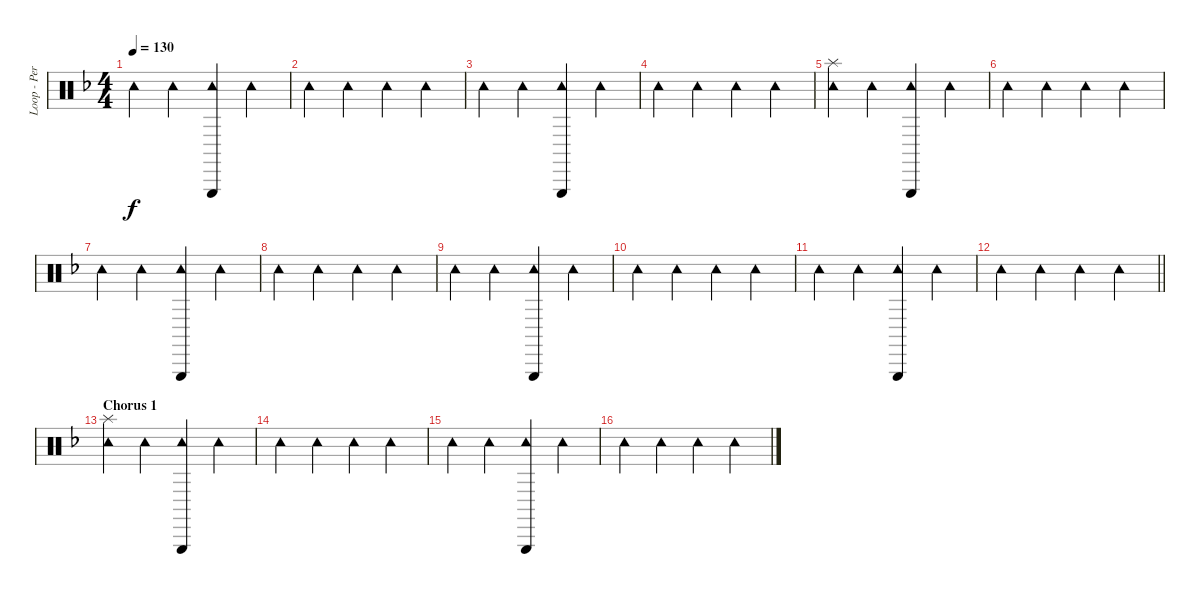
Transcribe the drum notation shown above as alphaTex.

\track ("Loop - Percussion FX" "Loop - Per") {instrument percussion}
\staff {score}
\articulation defaults
\ts (4 4)
\tempo 130
\clef neutral
\ks f "Tambourine (hit)".4{dy f} "Tambourine (hit)".4
("Tambourine (hit)" "Triangle (hit)").4 "Tambourine (hit)".4 |
"Tambourine (hit)".4 "Tambourine (hit)".4 "Tambourine (hit)".4 "Tambourine (hit)".4 |
"Tambourine (hit)".4 "Tambourine (hit)".4 ("Tambourine (hit)" "Triangle (hit)").4 "Tambourine (hit)".4 |
"Tambourine (hit)".4 "Tambourine (hit)".4 "Tambourine (hit)".4 "Tambourine (hit)".4 |
("Tambourine (hit)" "Splash (hit)").4 "Tambourine (hit)".4 ("Tambourine (hit)" "Triangle (hit)").4 "Tambourine (hit)".4 |
"Tambourine (hit)".4 "Tambourine (hit)".4 "Tambourine (hit)".4 "Tambourine (hit)".4 |
"Tambourine (hit)".4 "Tambourine (hit)".4 ("Tambourine (hit)" "Triangle (hit)").4 "Tambourine (hit)".4 |
"Tambourine (hit)".4 "Tambourine (hit)".4 "Tambourine (hit)".4 "Tambourine (hit)".4 |
"Tambourine (hit)".4 "Tambourine (hit)".4 ("Tambourine (hit)" "Triangle (hit)").4 "Tambourine (hit)".4 |
"Tambourine (hit)".4 "Tambourine (hit)".4 "Tambourine (hit)".4 "Tambourine (hit)".4 |
"Tambourine (hit)".4 "Tambourine (hit)".4 ("Tambourine (hit)" "Triangle (hit)").4 "Tambourine (hit)".4 |
\barLineRight lightlight "Tambourine (hit)".4 "Tambourine (hit)".4 "Tambourine (hit)".4 "Tambourine (hit)".4
|
\section ("" "Chorus 1")
("Tambourine (hit)" "Splash (hit)").4 "Tambourine (hit)".4 ("Tambourine (hit)" "Triangle (hit)").4 "Tambourine (hit)".4 |
"Tambourine (hit)".4 "Tambourine (hit)".4 "Tambourine (hit)".4 "Tambourine (hit)".4 |
"Tambourine (hit)".4 "Tambourine (hit)".4 ("Tambourine (hit)" "Triangle (hit)").4 "Tambourine (hit)".4 |
"Tambourine (hit)".4 "Tambourine (hit)".4 "Tambourine (hit)".4 "Tambourine (hit)".4
